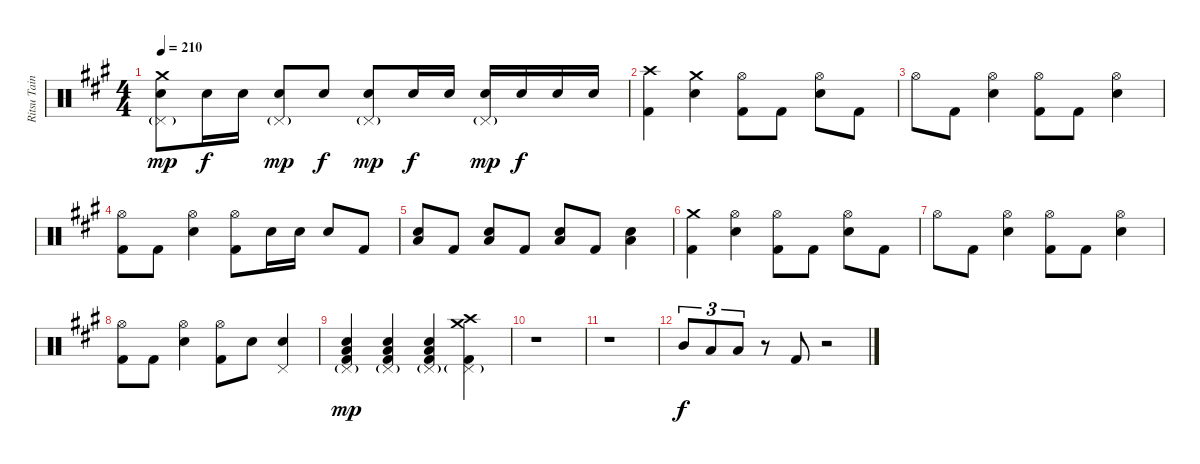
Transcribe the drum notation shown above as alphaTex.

\track ("Ritsu Tainaka" "Ritsu Tain") {instrument percussion}
\staff {score}
\articulation defaults
\ts (4 4)
\tempo 210
\clef neutral
\ks a
("Crash medium (hit)" "Pedal Hi-Hat (hit)"{g} "Electric Snare (hit)").8{dy mp} "Electric Snare (hit)".16{dy f} "Electric Snare (hit)".16 ("Pedal Hi-Hat (hit)"{g} "Electric Snare (hit)").8{dy mp} "Electric Snare (hit)".8{dy f} ("Pedal Hi-Hat (hit)"{g} "Electric Snare (hit)").8{dy mp} "Electric Snare (hit)".16{dy f} "Electric Snare (hit)".16 ("Pedal Hi-Hat (hit)"{g} "Electric Snare (hit)").16{dy mp} "Electric Snare (hit)".16{dy f} "Electric Snare (hit)".16 "Electric Snare (hit)".16 |
("Crash high (hit)" "Kick (hit) 2").4 ("Crash medium (hit)" "Electric Snare (hit)").4 ("Hi-Hat (open)" "Kick (hit) 2").8 "Kick (hit) 2".8 ("Hi-Hat (open)" "Electric Snare (hit)").8 "Kick (hit) 2".8 |
"Hi-Hat (open)".8 "Kick (hit) 2".8 ("Hi-Hat (open)" "Electric Snare (hit)").4 ("Hi-Hat (open)" "Kick (hit) 2").8 "Kick (hit) 2".8 ("Hi-Hat (open)" "Electric Snare (hit)").4 |
("Hi-Hat (open)" "Kick (hit) 2").8 "Kick (hit) 2".8 ("Hi-Hat (open)" "Electric Snare (hit)").4 ("Hi-Hat (open)" "Kick (hit) 2").8 "Electric Snare (hit)".16 "Electric Snare (hit)".16 "Electric Snare (hit)".8 "Kick (hit) 2".8 |
("Electric Snare (hit)" "Low Floor Tom (hit)").8 "Kick (hit) 2".8 ("Electric Snare (hit)" "Low Floor Tom (hit)").8 "Kick (hit) 2".8 ("Electric Snare (hit)" "Low Floor Tom (hit)").8 "Kick (hit) 2".8 ("Electric Snare (hit)" "Low Floor Tom (hit)").4 |
("Crash medium (hit)" "Kick (hit) 2").4 ("Hi-Hat (open)" "Electric Snare (hit)").4 ("Hi-Hat (open)" "Kick (hit) 2").8 "Kick (hit) 2".8 ("Hi-Hat (open)" "Electric Snare (hit)").8 "Kick (hit) 2".8 |
"Hi-Hat (open)".8 "Kick (hit) 2".8 ("Hi-Hat (open)" "Electric Snare (hit)").4 ("Hi-Hat (open)" "Kick (hit) 2").8 "Kick (hit) 2".8 ("Hi-Hat (open)" "Electric Snare (hit)").4 |
("Hi-Hat (open)" "Kick (hit) 2").8 "Kick (hit) 2".8 ("Hi-Hat (open)" "Electric Snare (hit)").4 ("Hi-Hat (open)" "Kick (hit) 2").8 "Electric Snare (hit)".8 ("Pedal Hi-Hat (hit)" "Electric Snare (hit)").4 |
("Pedal Hi-Hat (hit)"{g} "Electric Snare (hit)" "Low Floor Tom (hit)" "Kick (hit) 2").4{dy mp} ("Pedal Hi-Hat (hit)"{g} "Electric Snare (hit)" "Low Floor Tom (hit)" "Kick (hit) 2").4 ("Pedal Hi-Hat (hit)"{g} "Electric Snare (hit)" "Low Floor Tom (hit)" "Kick (hit) 2").4 ("Crash high (hit)" "Crash medium (hit)" "Pedal Hi-Hat (hit)"{g} "Kick (hit) 2").4 |
r.1 |
r.1 |
"Mid Tom (hit)".8{tu (3 2) dy f} "Low Tom (hit)".8{tu (3 2)} "Low Floor Tom (hit)".8{tu (3 2)} r.8 "Kick (hit) 2".8 r.2
